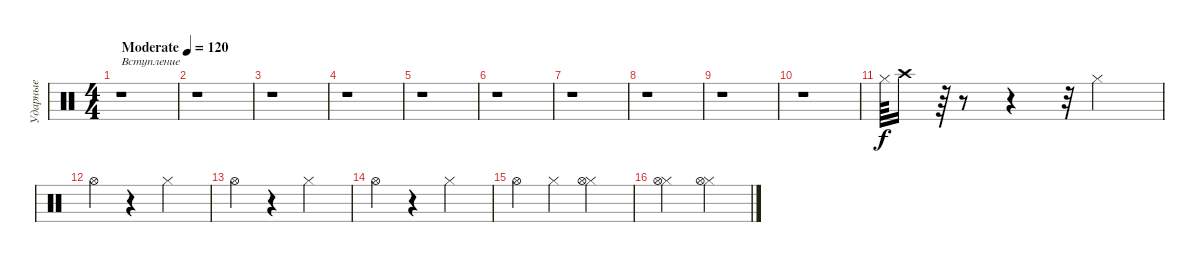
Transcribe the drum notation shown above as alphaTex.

\track ("Ударные" "Ударные") {instrument percussion}
\staff {score}
\articulation defaults
\ts (4 4)
\tempo (120 "Moderate")
\clef neutral
\ks c
r.1{txt "Вступление" dy f} |
r.1 |
r.1 |
r.1 |
r.1 |
r.1 |
r.1 |
r.1 |
r.1 |
r.1 |
"Hi-Hat (closed)".64 "Crash high (hit)".16 r.64 r.8 r.4 r.32 "Hi-Hat (closed)".2 |
"Hi-Hat (open)".4 r.4 "Hi-Hat (closed)".2 |
"Hi-Hat (open)".4 r.4 "Hi-Hat (closed)".2 |
"Hi-Hat (open)".4 r.4 "Hi-Hat (closed)".2 |
"Hi-Hat (open)".4 "Hi-Hat (closed)".4 ("Hi-Hat (closed)" "Hi-Hat (open)").2 |
("Hi-Hat (closed)" "Hi-Hat (open)").2 ("Hi-Hat (closed)" "Hi-Hat (open)").2
